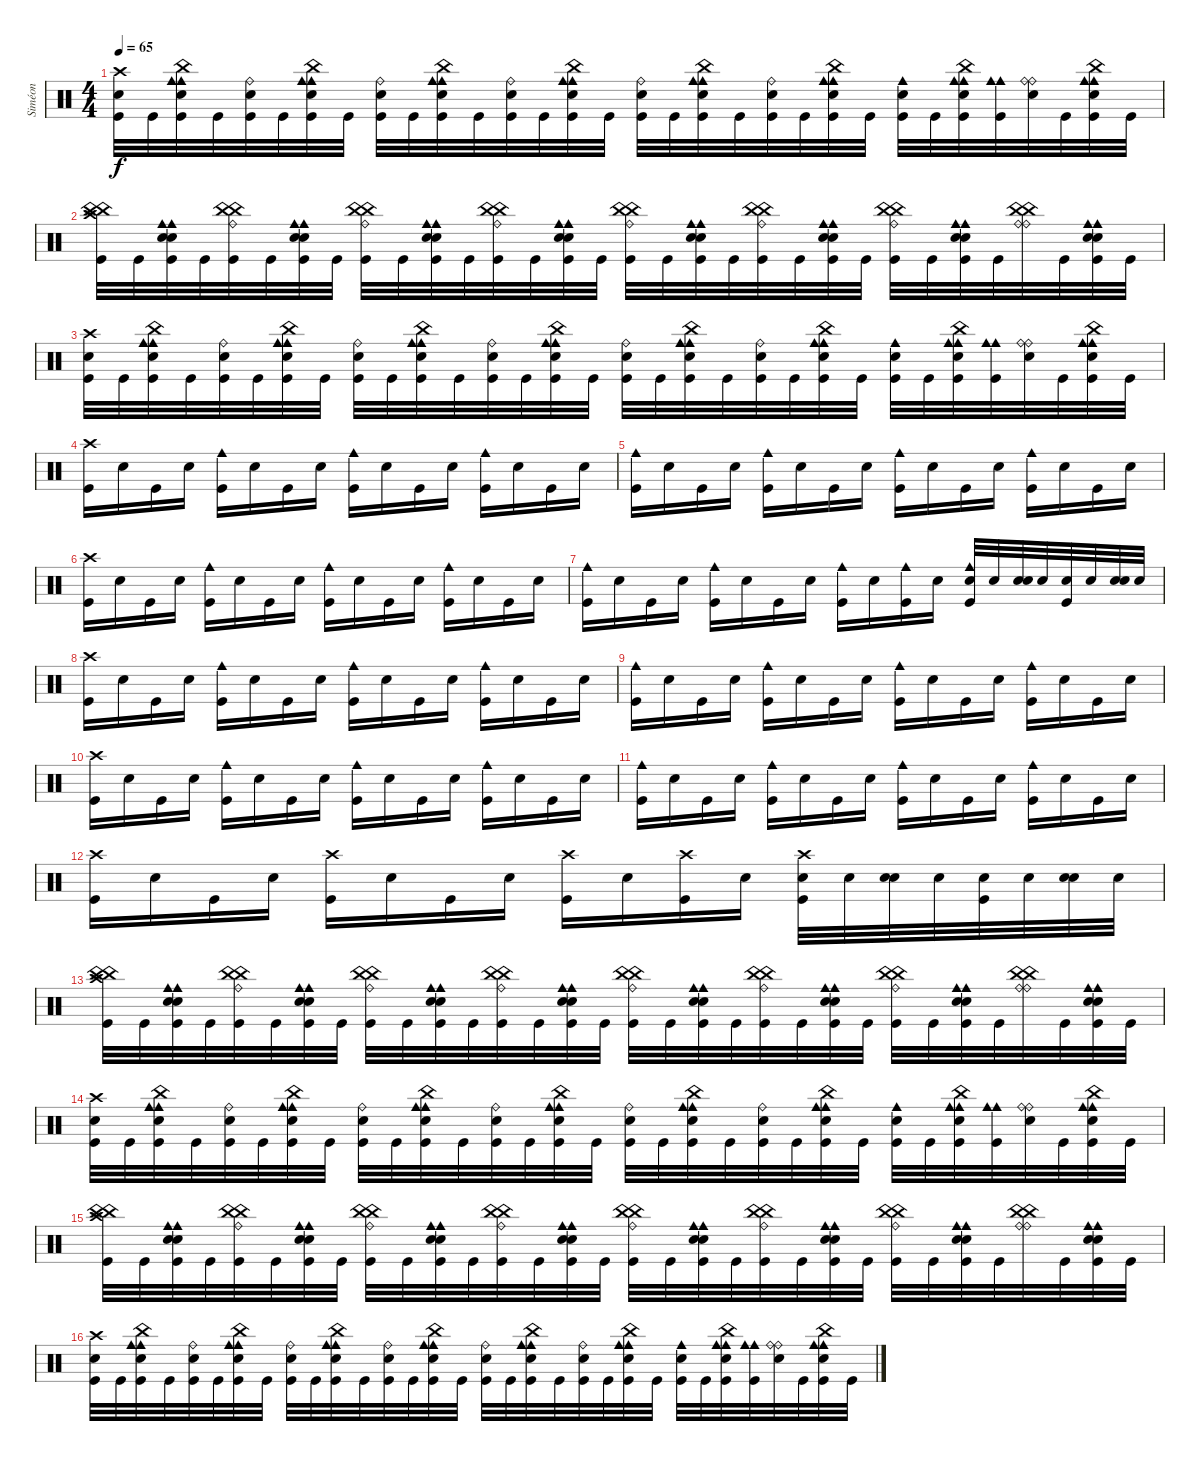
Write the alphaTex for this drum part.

\track ("Siméon" "Siméon") {instrument percussion}
\staff {score}
\articulation defaults
\ts (4 4)
\tempo 65
\clef neutral
\ks c
("Crash high (hit)" "Hand Clap (hit)" "Kick (hit)").32{dy f} "Kick (hit)".32 ("Cowbell medium (hit)" "Cowbell medium (hit)" "Electric Snare (hit)" "China (hit)" "Kick (hit)").32 "Kick (hit)".32 ("Ride (bell)" "Hand Clap (hit)" "Kick (hit)").32 "Kick (hit)".32 ("Cowbell medium (hit)" "Cowbell medium (hit)" "Electric Snare (hit)" "China (hit)" "Kick (hit)").32 "Kick (hit)".32 ("Ride (bell)" "Hand Clap (hit)" "Kick (hit)").32 "Kick (hit)".32 ("Cowbell medium (hit)" "Cowbell medium (hit)" "Electric Snare (hit)" "China (hit)" "Kick (hit)").32 "Kick (hit)".32 ("Ride (bell)" "Hand Clap (hit)" "Kick (hit)").32 "Kick (hit)".32 ("Cowbell medium (hit)" "Cowbell medium (hit)" "Electric Snare (hit)" "China (hit)" "Kick (hit)").32 "Kick (hit)".32 ("Ride (bell)" "Hand Clap (hit)" "Kick (hit)").32 "Kick (hit)".32 ("Cowbell medium (hit)" "Cowbell medium (hit)" "Electric Snare (hit)" "China (hit)" "Kick (hit)").32 "Kick (hit)".32 ("Ride (bell)" "Hand Clap (hit)" "Kick (hit)").32 "Kick (hit)".32 ("Cowbell medium (hit)" "Cowbell medium (hit)" "Electric Snare (hit)" "China (hit)" "Kick (hit)").32 "Kick (hit)".32 ("Cowbell medium (hit)" "Hand Clap (hit)" "Kick (hit)").32 "Kick (hit)".32 ("Cowbell medium (hit)" "Cowbell medium (hit)" "Electric Snare (hit)" "China (hit)" "Kick (hit)").32 ("Cowbell medium (hit)" "Cowbell medium (hit)" "Kick (hit)").32 ("Ride (bell)" "Hand Clap (hit)" "Ride (bell)").32 "Kick (hit)".32 ("Cowbell medium (hit)" "Cowbell medium (hit)" "Electric Snare (hit)" "China (hit)" "Kick (hit)").32 "Kick (hit)".32 |
("China (hit)" "Crash high (hit)" "China (hit)" "Kick (hit)").32 "Kick (hit)".32 ("Cowbell medium (hit)" "Cowbell medium (hit)" "Electric Snare (hit)" "Hand Clap (hit)" "Kick (hit)").32 "Kick (hit)".32 ("China (hit)" "Ride (bell)" "China (hit)" "Kick (hit)").32 "Kick (hit)".32 ("Cowbell medium (hit)" "Cowbell medium (hit)" "Electric Snare (hit)" "Hand Clap (hit)" "Kick (hit)").32 "Kick (hit)".32 ("China (hit)" "Ride (bell)" "China (hit)" "Kick (hit)").32 "Kick (hit)".32 ("Cowbell medium (hit)" "Cowbell medium (hit)" "Electric Snare (hit)" "Hand Clap (hit)" "Kick (hit)").32 "Kick (hit)".32 ("China (hit)" "Ride (bell)" "China (hit)" "Kick (hit)").32 "Kick (hit)".32 ("Cowbell medium (hit)" "Cowbell medium (hit)" "Electric Snare (hit)" "Hand Clap (hit)" "Kick (hit)").32 "Kick (hit)".32 ("China (hit)" "Ride (bell)" "China (hit)" "Kick (hit)").32 "Kick (hit)".32 ("Cowbell medium (hit)" "Cowbell medium (hit)" "Electric Snare (hit)" "Hand Clap (hit)" "Kick (hit)").32 "Kick (hit)".32 ("China (hit)" "Ride (bell)" "China (hit)" "Kick (hit)").32 "Kick (hit)".32 ("Cowbell medium (hit)" "Cowbell medium (hit)" "Electric Snare (hit)" "Hand Clap (hit)" "Kick (hit)").32 "Kick (hit)".32 ("China (hit)" "Ride (bell)" "China (hit)" "Kick (hit)").32 "Kick (hit)".32 ("Cowbell medium (hit)" "Cowbell medium (hit)" "Electric Snare (hit)" "Hand Clap (hit)" "Kick (hit)").32 "Kick (hit)".32 ("China (hit)" "Ride (bell)" "China (hit)" "Ride (bell)").32 "Kick (hit)".32 ("Cowbell medium (hit)" "Cowbell medium (hit)" "Electric Snare (hit)" "Hand Clap (hit)" "Kick (hit)").32 "Kick (hit)".32 |
("Crash high (hit)" "Hand Clap (hit)" "Kick (hit)").32 "Kick (hit)".32 ("Cowbell medium (hit)" "Cowbell medium (hit)" "Electric Snare (hit)" "China (hit)" "Kick (hit)").32 "Kick (hit)".32 ("Ride (bell)" "Hand Clap (hit)" "Kick (hit)").32 "Kick (hit)".32 ("Cowbell medium (hit)" "Cowbell medium (hit)" "Electric Snare (hit)" "China (hit)" "Kick (hit)").32 "Kick (hit)".32 ("Ride (bell)" "Hand Clap (hit)" "Kick (hit)").32 "Kick (hit)".32 ("Cowbell medium (hit)" "Cowbell medium (hit)" "Electric Snare (hit)" "China (hit)" "Kick (hit)").32 "Kick (hit)".32 ("Ride (bell)" "Hand Clap (hit)" "Kick (hit)").32 "Kick (hit)".32 ("Cowbell medium (hit)" "Cowbell medium (hit)" "Electric Snare (hit)" "China (hit)" "Kick (hit)").32 "Kick (hit)".32 ("Ride (bell)" "Hand Clap (hit)" "Kick (hit)").32 "Kick (hit)".32 ("Cowbell medium (hit)" "Cowbell medium (hit)" "Electric Snare (hit)" "China (hit)" "Kick (hit)").32 "Kick (hit)".32 ("Ride (bell)" "Hand Clap (hit)" "Kick (hit)").32 "Kick (hit)".32 ("Cowbell medium (hit)" "Cowbell medium (hit)" "Electric Snare (hit)" "China (hit)" "Kick (hit)").32 "Kick (hit)".32 ("Cowbell medium (hit)" "Hand Clap (hit)" "Kick (hit)").32 "Kick (hit)".32 ("Cowbell medium (hit)" "Cowbell medium (hit)" "Electric Snare (hit)" "China (hit)" "Kick (hit)").32 ("Cowbell medium (hit)" "Cowbell medium (hit)" "Kick (hit)").32 ("Ride (bell)" "Hand Clap (hit)" "Ride (bell)").32 "Kick (hit)".32 ("Cowbell medium (hit)" "Cowbell medium (hit)" "Electric Snare (hit)" "China (hit)" "Kick (hit)").32 "Kick (hit)".32 |
("Crash high (hit)" "Kick (hit)").16 "Hand Clap (hit)".16 "Kick (hit)".16 "Hand Clap (hit)".16 ("Cowbell medium (hit)" "Kick (hit)").16 "Hand Clap (hit)".16 "Kick (hit)".16 "Hand Clap (hit)".16 ("Cowbell medium (hit)" "Kick (hit)").16 "Hand Clap (hit)".16 "Kick (hit)".16 "Hand Clap (hit)".16 ("Cowbell medium (hit)" "Kick (hit)").16 "Hand Clap (hit)".16 "Kick (hit)".16 "Hand Clap (hit)".16 |
("Cowbell medium (hit)" "Kick (hit)").16 "Hand Clap (hit)".16 "Kick (hit)".16 "Hand Clap (hit)".16 ("Cowbell medium (hit)" "Kick (hit)").16 "Hand Clap (hit)".16 "Kick (hit)".16 "Hand Clap (hit)".16 ("Cowbell medium (hit)" "Kick (hit)").16 "Hand Clap (hit)".16 "Kick (hit)".16 "Hand Clap (hit)".16 ("Cowbell medium (hit)" "Kick (hit)").16 "Hand Clap (hit)".16 "Kick (hit)".16 "Hand Clap (hit)".16 |
("Crash high (hit)" "Kick (hit)").16 "Hand Clap (hit)".16 "Kick (hit)".16 "Hand Clap (hit)".16 ("Cowbell medium (hit)" "Kick (hit)").16 "Hand Clap (hit)".16 "Kick (hit)".16 "Hand Clap (hit)".16 ("Cowbell medium (hit)" "Kick (hit)").16 "Hand Clap (hit)".16 "Kick (hit)".16 "Hand Clap (hit)".16 ("Cowbell medium (hit)" "Kick (hit)").16 "Hand Clap (hit)".16 "Kick (hit)".16 "Hand Clap (hit)".16 |
("Cowbell medium (hit)" "Kick (hit)").16 "Hand Clap (hit)".16 "Kick (hit)".16 "Hand Clap (hit)".16 ("Cowbell medium (hit)" "Kick (hit)").16 "Hand Clap (hit)".16 "Kick (hit)".16 "Hand Clap (hit)".16 ("Cowbell medium (hit)" "Kick (hit)").16 "Hand Clap (hit)".16 ("Cowbell medium (hit)" "Kick (hit)").16 "Hand Clap (hit)".16 ("Cowbell medium (hit)" "Electric Snare (hit)" "Kick (hit)").32 "Electric Snare (hit)".32 ("Electric Snare (hit)" "Hand Clap (hit)").32 "Electric Snare (hit)".32 ("Electric Snare (hit)" "Kick (hit)").32 "Electric Snare (hit)".32 ("Electric Snare (hit)" "Hand Clap (hit)").32 "Electric Snare (hit)".32 |
("Crash high (hit)" "Kick (hit)").16 "Hand Clap (hit)".16 "Kick (hit)".16 "Hand Clap (hit)".16 ("Cowbell medium (hit)" "Kick (hit)").16 "Hand Clap (hit)".16 "Kick (hit)".16 "Hand Clap (hit)".16 ("Cowbell medium (hit)" "Kick (hit)").16 "Hand Clap (hit)".16 "Kick (hit)".16 "Hand Clap (hit)".16 ("Cowbell medium (hit)" "Kick (hit)").16 "Hand Clap (hit)".16 "Kick (hit)".16 "Hand Clap (hit)".16 |
("Cowbell medium (hit)" "Kick (hit)").16 "Hand Clap (hit)".16 "Kick (hit)".16 "Hand Clap (hit)".16 ("Cowbell medium (hit)" "Kick (hit)").16 "Hand Clap (hit)".16 "Kick (hit)".16 "Hand Clap (hit)".16 ("Cowbell medium (hit)" "Kick (hit)").16 "Hand Clap (hit)".16 "Kick (hit)".16 "Hand Clap (hit)".16 ("Cowbell medium (hit)" "Kick (hit)").16 "Hand Clap (hit)".16 "Kick (hit)".16 "Hand Clap (hit)".16 |
("Crash high (hit)" "Kick (hit)").16 "Hand Clap (hit)".16 "Kick (hit)".16 "Hand Clap (hit)".16 ("Cowbell medium (hit)" "Kick (hit)").16 "Hand Clap (hit)".16 "Kick (hit)".16 "Hand Clap (hit)".16 ("Cowbell medium (hit)" "Kick (hit)").16 "Hand Clap (hit)".16 "Kick (hit)".16 "Hand Clap (hit)".16 ("Cowbell medium (hit)" "Kick (hit)").16 "Hand Clap (hit)".16 "Kick (hit)".16 "Hand Clap (hit)".16 |
("Cowbell medium (hit)" "Kick (hit)").16 "Hand Clap (hit)".16 "Kick (hit)".16 "Hand Clap (hit)".16 ("Cowbell medium (hit)" "Kick (hit)").16 "Hand Clap (hit)".16 "Kick (hit)".16 "Hand Clap (hit)".16 ("Cowbell medium (hit)" "Kick (hit)").16 "Hand Clap (hit)".16 "Kick (hit)".16 "Hand Clap (hit)".16 ("Cowbell medium (hit)" "Kick (hit)").16 "Hand Clap (hit)".16 "Kick (hit)".16 "Hand Clap (hit)".16 |
("Crash high (hit)" "Kick (hit)").16 "Hand Clap (hit)".16 "Kick (hit)".16 "Hand Clap (hit)".16 ("Crash high (hit)" "Kick (hit)").16 "Hand Clap (hit)".16 "Kick (hit)".16 "Hand Clap (hit)".16 ("Crash high (hit)" "Kick (hit)").16 "Hand Clap (hit)".16 ("Crash high (hit)" "Kick (hit)").16 "Hand Clap (hit)".16 ("Crash high (hit)" "Electric Snare (hit)" "Kick (hit)").32 "Electric Snare (hit)".32 ("Electric Snare (hit)" "Hand Clap (hit)").32 "Electric Snare (hit)".32 ("Electric Snare (hit)" "Kick (hit)").32 "Electric Snare (hit)".32 ("Electric Snare (hit)" "Hand Clap (hit)").32 "Electric Snare (hit)".32 |
("China (hit)" "Crash high (hit)" "China (hit)" "Kick (hit)").32 "Kick (hit)".32 ("Cowbell medium (hit)" "Cowbell medium (hit)" "Electric Snare (hit)" "Hand Clap (hit)" "Kick (hit)").32 "Kick (hit)".32 ("China (hit)" "Ride (bell)" "China (hit)" "Kick (hit)").32 "Kick (hit)".32 ("Cowbell medium (hit)" "Cowbell medium (hit)" "Electric Snare (hit)" "Hand Clap (hit)" "Kick (hit)").32 "Kick (hit)".32 ("China (hit)" "Ride (bell)" "China (hit)" "Kick (hit)").32 "Kick (hit)".32 ("Cowbell medium (hit)" "Cowbell medium (hit)" "Electric Snare (hit)" "Hand Clap (hit)" "Kick (hit)").32 "Kick (hit)".32 ("China (hit)" "Ride (bell)" "China (hit)" "Kick (hit)").32 "Kick (hit)".32 ("Cowbell medium (hit)" "Cowbell medium (hit)" "Electric Snare (hit)" "Hand Clap (hit)" "Kick (hit)").32 "Kick (hit)".32 ("China (hit)" "Ride (bell)" "China (hit)" "Kick (hit)").32 "Kick (hit)".32 ("Cowbell medium (hit)" "Cowbell medium (hit)" "Electric Snare (hit)" "Hand Clap (hit)" "Kick (hit)").32 "Kick (hit)".32 ("China (hit)" "Ride (bell)" "China (hit)" "Kick (hit)").32 "Kick (hit)".32 ("Cowbell medium (hit)" "Cowbell medium (hit)" "Electric Snare (hit)" "Hand Clap (hit)" "Kick (hit)").32 "Kick (hit)".32 ("China (hit)" "Ride (bell)" "China (hit)" "Kick (hit)").32 "Kick (hit)".32 ("Cowbell medium (hit)" "Cowbell medium (hit)" "Electric Snare (hit)" "Hand Clap (hit)" "Kick (hit)").32 "Kick (hit)".32 ("China (hit)" "Ride (bell)" "China (hit)" "Ride (bell)").32 "Kick (hit)".32 ("Cowbell medium (hit)" "Cowbell medium (hit)" "Electric Snare (hit)" "Hand Clap (hit)" "Kick (hit)").32 "Kick (hit)".32 |
("Crash high (hit)" "Hand Clap (hit)" "Kick (hit)").32 "Kick (hit)".32 ("Cowbell medium (hit)" "Cowbell medium (hit)" "Electric Snare (hit)" "China (hit)" "Kick (hit)").32 "Kick (hit)".32 ("Ride (bell)" "Hand Clap (hit)" "Kick (hit)").32 "Kick (hit)".32 ("Cowbell medium (hit)" "Cowbell medium (hit)" "Electric Snare (hit)" "China (hit)" "Kick (hit)").32 "Kick (hit)".32 ("Ride (bell)" "Hand Clap (hit)" "Kick (hit)").32 "Kick (hit)".32 ("Cowbell medium (hit)" "Cowbell medium (hit)" "Electric Snare (hit)" "China (hit)" "Kick (hit)").32 "Kick (hit)".32 ("Ride (bell)" "Hand Clap (hit)" "Kick (hit)").32 "Kick (hit)".32 ("Cowbell medium (hit)" "Cowbell medium (hit)" "Electric Snare (hit)" "China (hit)" "Kick (hit)").32 "Kick (hit)".32 ("Ride (bell)" "Hand Clap (hit)" "Kick (hit)").32 "Kick (hit)".32 ("Cowbell medium (hit)" "Cowbell medium (hit)" "Electric Snare (hit)" "China (hit)" "Kick (hit)").32 "Kick (hit)".32 ("Ride (bell)" "Hand Clap (hit)" "Kick (hit)").32 "Kick (hit)".32 ("Cowbell medium (hit)" "Cowbell medium (hit)" "Electric Snare (hit)" "China (hit)" "Kick (hit)").32 "Kick (hit)".32 ("Cowbell medium (hit)" "Hand Clap (hit)" "Kick (hit)").32 "Kick (hit)".32 ("Cowbell medium (hit)" "Cowbell medium (hit)" "Electric Snare (hit)" "China (hit)" "Kick (hit)").32 ("Cowbell medium (hit)" "Cowbell medium (hit)" "Kick (hit)").32 ("Ride (bell)" "Hand Clap (hit)" "Ride (bell)").32 "Kick (hit)".32 ("Cowbell medium (hit)" "Cowbell medium (hit)" "Electric Snare (hit)" "China (hit)" "Kick (hit)").32 "Kick (hit)".32 |
("China (hit)" "Crash high (hit)" "China (hit)" "Kick (hit)").32 "Kick (hit)".32 ("Cowbell medium (hit)" "Cowbell medium (hit)" "Electric Snare (hit)" "Hand Clap (hit)" "Kick (hit)").32 "Kick (hit)".32 ("China (hit)" "Ride (bell)" "China (hit)" "Kick (hit)").32 "Kick (hit)".32 ("Cowbell medium (hit)" "Cowbell medium (hit)" "Electric Snare (hit)" "Hand Clap (hit)" "Kick (hit)").32 "Kick (hit)".32 ("China (hit)" "Ride (bell)" "China (hit)" "Kick (hit)").32 "Kick (hit)".32 ("Cowbell medium (hit)" "Cowbell medium (hit)" "Electric Snare (hit)" "Hand Clap (hit)" "Kick (hit)").32 "Kick (hit)".32 ("China (hit)" "Ride (bell)" "China (hit)" "Kick (hit)").32 "Kick (hit)".32 ("Cowbell medium (hit)" "Cowbell medium (hit)" "Electric Snare (hit)" "Hand Clap (hit)" "Kick (hit)").32 "Kick (hit)".32 ("China (hit)" "Ride (bell)" "China (hit)" "Kick (hit)").32 "Kick (hit)".32 ("Cowbell medium (hit)" "Cowbell medium (hit)" "Electric Snare (hit)" "Hand Clap (hit)" "Kick (hit)").32 "Kick (hit)".32 ("China (hit)" "Ride (bell)" "China (hit)" "Kick (hit)").32 "Kick (hit)".32 ("Cowbell medium (hit)" "Cowbell medium (hit)" "Electric Snare (hit)" "Hand Clap (hit)" "Kick (hit)").32 "Kick (hit)".32 ("China (hit)" "Ride (bell)" "China (hit)" "Kick (hit)").32 "Kick (hit)".32 ("Cowbell medium (hit)" "Cowbell medium (hit)" "Electric Snare (hit)" "Hand Clap (hit)" "Kick (hit)").32 "Kick (hit)".32 ("China (hit)" "Ride (bell)" "China (hit)" "Ride (bell)").32 "Kick (hit)".32 ("Cowbell medium (hit)" "Cowbell medium (hit)" "Electric Snare (hit)" "Hand Clap (hit)" "Kick (hit)").32 "Kick (hit)".32 |
("Crash high (hit)" "Hand Clap (hit)" "Kick (hit)").32 "Kick (hit)".32 ("Cowbell medium (hit)" "Cowbell medium (hit)" "Electric Snare (hit)" "China (hit)" "Kick (hit)").32 "Kick (hit)".32 ("Ride (bell)" "Hand Clap (hit)" "Kick (hit)").32 "Kick (hit)".32 ("Cowbell medium (hit)" "Cowbell medium (hit)" "Electric Snare (hit)" "China (hit)" "Kick (hit)").32 "Kick (hit)".32 ("Ride (bell)" "Hand Clap (hit)" "Kick (hit)").32 "Kick (hit)".32 ("Cowbell medium (hit)" "Cowbell medium (hit)" "Electric Snare (hit)" "China (hit)" "Kick (hit)").32 "Kick (hit)".32 ("Ride (bell)" "Hand Clap (hit)" "Kick (hit)").32 "Kick (hit)".32 ("Cowbell medium (hit)" "Cowbell medium (hit)" "Electric Snare (hit)" "China (hit)" "Kick (hit)").32 "Kick (hit)".32 ("Ride (bell)" "Hand Clap (hit)" "Kick (hit)").32 "Kick (hit)".32 ("Cowbell medium (hit)" "Cowbell medium (hit)" "Electric Snare (hit)" "China (hit)" "Kick (hit)").32 "Kick (hit)".32 ("Ride (bell)" "Hand Clap (hit)" "Kick (hit)").32 "Kick (hit)".32 ("Cowbell medium (hit)" "Cowbell medium (hit)" "Electric Snare (hit)" "China (hit)" "Kick (hit)").32 "Kick (hit)".32 ("Cowbell medium (hit)" "Hand Clap (hit)" "Kick (hit)").32 "Kick (hit)".32 ("Cowbell medium (hit)" "Cowbell medium (hit)" "Electric Snare (hit)" "China (hit)" "Kick (hit)").32 ("Cowbell medium (hit)" "Cowbell medium (hit)" "Kick (hit)").32 ("Ride (bell)" "Hand Clap (hit)" "Ride (bell)").32 "Kick (hit)".32 ("Cowbell medium (hit)" "Cowbell medium (hit)" "Electric Snare (hit)" "China (hit)" "Kick (hit)").32 "Kick (hit)".32
